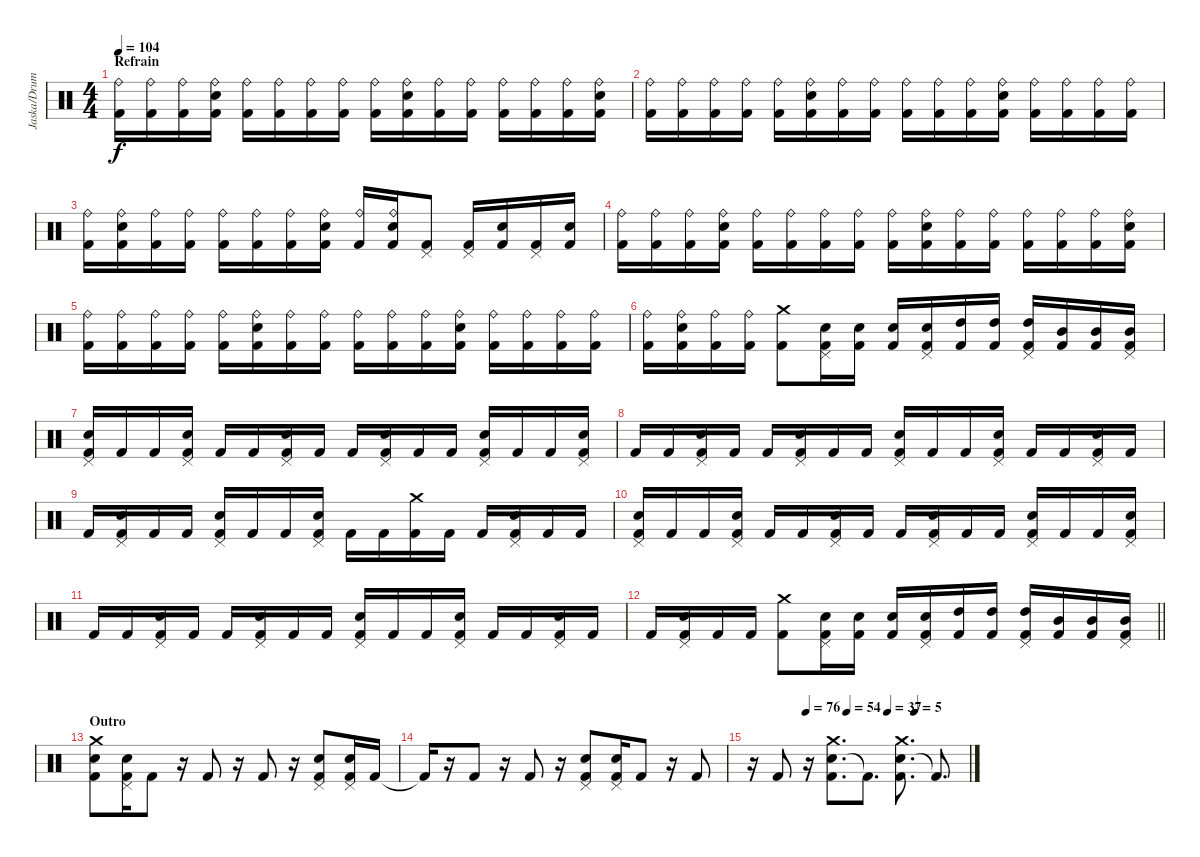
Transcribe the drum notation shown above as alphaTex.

\track ("Jaska/Drums" "Jaska/Drum") {instrument percussion}
\staff {score}
\articulation defaults
\ts (4 4)
\section ("" "Refrain")
\tempo 104
\clef neutral
\ks c
("Ride (bell)" "Kick (hit) 2").16{dy f} ("Ride (bell)" "Kick (hit) 2").16 ("Ride (bell)" "Kick (hit) 2").16 ("Snare (hit) 2" "Ride (bell)" "Kick (hit) 2").16 ("Ride (bell)" "Kick (hit) 2").16 ("Ride (bell)" "Kick (hit) 2").16 ("Ride (bell)" "Kick (hit) 2").16 ("Ride (bell)" "Kick (hit) 2").16 ("Ride (bell)" "Kick (hit) 2").16 ("Snare (hit) 2" "Ride (bell)" "Kick (hit) 2").16 ("Ride (bell)" "Kick (hit) 2").16 ("Ride (bell)" "Kick (hit) 2").16 ("Ride (bell)" "Kick (hit) 2").16 ("Ride (bell)" "Kick (hit) 2").16 ("Ride (bell)" "Kick (hit) 2").16 ("Snare (hit) 2" "Ride (bell)" "Kick (hit) 2").16 |
("Ride (bell)" "Kick (hit) 2").16 ("Ride (bell)" "Kick (hit) 2").16 ("Ride (bell)" "Kick (hit) 2").16 ("Ride (bell)" "Kick (hit) 2").16 ("Ride (bell)" "Kick (hit) 2").16 ("Snare (hit) 2" "Ride (bell)" "Kick (hit) 2").16 ("Ride (bell)" "Kick (hit) 2").16 ("Ride (bell)" "Kick (hit) 2").16 ("Ride (bell)" "Kick (hit) 2").16 ("Ride (bell)" "Kick (hit) 2").16 ("Ride (bell)" "Kick (hit) 2").16 ("Snare (hit) 2" "Ride (bell)" "Kick (hit) 2").16 ("Ride (bell)" "Kick (hit) 2").16 ("Ride (bell)" "Kick (hit) 2").16 ("Ride (bell)" "Kick (hit) 2").16 ("Ride (bell)" "Kick (hit) 2").16 |
("Ride (bell)" "Kick (hit) 2").16 ("Snare (hit) 2" "Ride (bell)" "Kick (hit) 2").16 ("Ride (bell)" "Kick (hit) 2").16 ("Ride (bell)" "Kick (hit) 2").16 ("Ride (bell)" "Kick (hit) 2").16 ("Ride (bell)" "Kick (hit) 2").16 ("Ride (bell)" "Kick (hit) 2").16 ("Snare (hit) 2" "Ride (bell)" "Kick (hit) 2").16 ("Ride (bell)" "Kick (hit) 2").16 ("Snare (hit) 2" "Ride (bell)" "Kick (hit) 2").16 ("Pedal Hi-Hat (hit)" "Kick (hit) 2").8 ("Pedal Hi-Hat (hit)" "Kick (hit) 2").16 ("Snare (hit) 2" "Kick (hit) 2").16 ("Pedal Hi-Hat (hit)" "Kick (hit) 2").16 ("Snare (hit) 2" "Kick (hit) 2").16 |
("Ride (bell)" "Kick (hit) 2").16 ("Ride (bell)" "Kick (hit) 2").16 ("Ride (bell)" "Kick (hit) 2").16 ("Snare (hit) 2" "Ride (bell)" "Kick (hit) 2").16 ("Ride (bell)" "Kick (hit) 2").16 ("Ride (bell)" "Kick (hit) 2").16 ("Ride (bell)" "Kick (hit) 2").16 ("Ride (bell)" "Kick (hit) 2").16 ("Ride (bell)" "Kick (hit) 2").16 ("Snare (hit) 2" "Ride (bell)" "Kick (hit) 2").16 ("Ride (bell)" "Kick (hit) 2").16 ("Ride (bell)" "Kick (hit) 2").16 ("Ride (bell)" "Kick (hit) 2").16 ("Ride (bell)" "Kick (hit) 2").16 ("Ride (bell)" "Kick (hit) 2").16 ("Snare (hit) 2" "Ride (bell)" "Kick (hit) 2").16 |
("Ride (bell)" "Kick (hit) 2").16 ("Ride (bell)" "Kick (hit) 2").16 ("Ride (bell)" "Kick (hit) 2").16 ("Ride (bell)" "Kick (hit) 2").16 ("Ride (bell)" "Kick (hit) 2").16 ("Snare (hit) 2" "Ride (bell)" "Kick (hit) 2").16 ("Ride (bell)" "Kick (hit) 2").16 ("Ride (bell)" "Kick (hit) 2").16 ("Ride (bell)" "Kick (hit) 2").16 ("Ride (bell)" "Kick (hit) 2").16 ("Ride (bell)" "Kick (hit) 2").16 ("Snare (hit) 2" "Ride (bell)" "Kick (hit) 2").16 ("Ride (bell)" "Kick (hit) 2").16 ("Ride (bell)" "Kick (hit) 2").16 ("Ride (bell)" "Kick (hit) 2").16 ("Ride (bell)" "Kick (hit) 2").16 |
("Ride (bell)" "Kick (hit) 2").16 ("Snare (hit) 2" "Ride (bell)" "Kick (hit) 2").16 ("Ride (bell)" "Kick (hit) 2").16 ("Ride (bell)" "Kick (hit) 2").16 ("Crash medium (hit)" "Kick (hit) 2").8 ("Snare (hit) 2" "Pedal Hi-Hat (hit)" "Kick (hit) 2").16 ("Snare (hit) 2" "Kick (hit) 2").16 ("Snare (hit) 2" "Kick (hit) 2").16 ("Snare (hit) 2" "Pedal Hi-Hat (hit)" "Kick (hit) 2").16 ("High Tom (hit)" "Kick (hit) 2").16 ("High Tom (hit)" "Kick (hit) 2").16 ("High Tom (hit)" "Pedal Hi-Hat (hit)" "Kick (hit) 2").16 ("Mid Tom (hit)" "Kick (hit) 2").16 ("Mid Tom (hit)" "Kick (hit) 2").16 ("Mid Tom (hit)" "Pedal Hi-Hat (hit)" "Kick (hit) 2").16 |
("Snare (hit) 2" "Pedal Hi-Hat (hit)" "Kick (hit) 2").16 "Kick (hit) 2".16 "Kick (hit) 2".16 ("Snare (hit) 2" "Pedal Hi-Hat (hit)" "Kick (hit) 2").16 "Kick (hit) 2".16 "Kick (hit) 2".16 ("Snare (hit) 2" "Pedal Hi-Hat (hit)" "Kick (hit) 2").16 "Kick (hit) 2".16 "Kick (hit) 2".16 ("Snare (hit) 2" "Pedal Hi-Hat (hit)" "Kick (hit) 2").16 "Kick (hit) 2".16 "Kick (hit) 2".16 ("Snare (hit) 2" "Pedal Hi-Hat (hit)" "Kick (hit) 2").16 "Kick (hit) 2".16 "Kick (hit) 2".16 ("Snare (hit) 2" "Pedal Hi-Hat (hit)" "Kick (hit) 2").16 |
"Kick (hit) 2".16 "Kick (hit) 2".16 ("Snare (hit) 2" "Pedal Hi-Hat (hit)" "Kick (hit) 2").16 "Kick (hit) 2".16 "Kick (hit) 2".16 ("Snare (hit) 2" "Pedal Hi-Hat (hit)" "Kick (hit) 2").16 "Kick (hit) 2".16 "Kick (hit) 2".16 ("Snare (hit) 2" "Pedal Hi-Hat (hit)" "Kick (hit) 2").16 "Kick (hit) 2".16 "Kick (hit) 2".16 ("Snare (hit) 2" "Pedal Hi-Hat (hit)" "Kick (hit) 2").16 "Kick (hit) 2".16 "Kick (hit) 2".16 ("Snare (hit) 2" "Pedal Hi-Hat (hit)" "Kick (hit) 2").16 "Kick (hit) 2".16 |
"Kick (hit) 2".16 ("Snare (hit) 2" "Pedal Hi-Hat (hit)" "Kick (hit) 2").16 "Kick (hit) 2".16 "Kick (hit) 2".16 ("Snare (hit) 2" "Pedal Hi-Hat (hit)" "Kick (hit) 2").16 "Kick (hit) 2".16 "Kick (hit) 2".16 ("Snare (hit) 2" "Pedal Hi-Hat (hit)" "Kick (hit) 2").16 "Kick (hit) 2".16 "Kick (hit) 2".16 ("Crash medium (hit)" "Kick (hit) 2").16 "Kick (hit) 2".16 "Kick (hit) 2".16 ("Snare (hit) 2" "Pedal Hi-Hat (hit)" "Kick (hit) 2").16 "Kick (hit) 2".16 "Kick (hit) 2".16 |
("Snare (hit) 2" "Pedal Hi-Hat (hit)" "Kick (hit) 2").16 "Kick (hit) 2".16 "Kick (hit) 2".16 ("Snare (hit) 2" "Pedal Hi-Hat (hit)" "Kick (hit) 2").16 "Kick (hit) 2".16 "Kick (hit) 2".16 ("Snare (hit) 2" "Pedal Hi-Hat (hit)" "Kick (hit) 2").16 "Kick (hit) 2".16 "Kick (hit) 2".16 ("Snare (hit) 2" "Pedal Hi-Hat (hit)" "Kick (hit) 2").16 "Kick (hit) 2".16 "Kick (hit) 2".16 ("Snare (hit) 2" "Pedal Hi-Hat (hit)" "Kick (hit) 2").16 "Kick (hit) 2".16 "Kick (hit) 2".16 ("Snare (hit) 2" "Pedal Hi-Hat (hit)" "Kick (hit) 2").16 |
"Kick (hit) 2".16 "Kick (hit) 2".16 ("Snare (hit) 2" "Pedal Hi-Hat (hit)" "Kick (hit) 2").16 "Kick (hit) 2".16 "Kick (hit) 2".16 ("Snare (hit) 2" "Pedal Hi-Hat (hit)" "Kick (hit) 2").16 "Kick (hit) 2".16 "Kick (hit) 2".16 ("Snare (hit) 2" "Pedal Hi-Hat (hit)" "Kick (hit) 2").16 "Kick (hit) 2".16 "Kick (hit) 2".16 ("Snare (hit) 2" "Pedal Hi-Hat (hit)" "Kick (hit) 2").16 "Kick (hit) 2".16 "Kick (hit) 2".16 ("Snare (hit) 2" "Pedal Hi-Hat (hit)" "Kick (hit) 2").16 "Kick (hit) 2".16 |
\barLineRight lightlight "Kick (hit) 2".16
("Snare (hit) 2" "Pedal Hi-Hat (hit)" "Kick (hit) 2").16 "Kick (hit) 2".16 "Kick (hit) 2".16 ("Crash medium (hit)" "Kick (hit) 2").8 ("Snare (hit) 2" "Pedal Hi-Hat (hit)" "Kick (hit) 2").16 ("Snare (hit) 2" "Kick (hit) 2").16 ("Snare (hit) 2" "Kick (hit) 2").16 ("Snare (hit) 2" "Pedal Hi-Hat (hit)" "Kick (hit) 2").16 ("High Tom (hit)" "Kick (hit) 2").16 ("High Tom (hit)" "Kick (hit) 2").16 ("High Tom (hit)" "Pedal Hi-Hat (hit)" "Kick (hit) 2").16 ("Mid Tom (hit)" "Kick (hit) 2").16 ("Mid Tom (hit)" "Kick (hit) 2").16 ("Mid Tom (hit)" "Pedal Hi-Hat (hit)" "Kick (hit) 2").16 |
\section ("" "Outro")
("Snare (hit) 2" "Crash medium (hit)" "Kick (hit) 2").8 ("Snare (hit) 2" "Pedal Hi-Hat (hit)" "Kick (hit) 2").16 "Kick (hit) 2".8 r.16 "Kick (hit) 2".8 r.16 "Kick (hit) 2".8 r.16 ("Snare (hit) 2" "Pedal Hi-Hat (hit)" "Kick (hit) 2").8 ("Snare (hit) 2" "Pedal Hi-Hat (hit)" "Kick (hit) 2").16 "Kick (hit) 2".16 |
"Kick (hit) 2"{t}.16 r.16 "Kick (hit) 2".8 r.16 "Kick (hit) 2".8 r.16 ("Snare (hit) 2" "Pedal Hi-Hat (hit)" "Kick (hit) 2").8 ("Snare (hit) 2" "Pedal Hi-Hat (hit)" "Kick (hit) 2").16 "Kick (hit) 2".8 r.16 "Kick (hit) 2".8 |
\tempo (76 0.25)
\tempo (54 0.4375)
\tempo (37 0.625)
\tempo (5 0.75)
r.16 "Kick (hit) 2".8 r.16 ("Snare (hit) 2" "Crash medium (hit)" "Kick (hit) 2").8{d} "Kick (hit) 2"{t}.8{d} ("Snare (hit) 2" "Crash medium (hit)" "Kick (hit) 2").8{d} "Kick (hit) 2"{t}.8{d}
